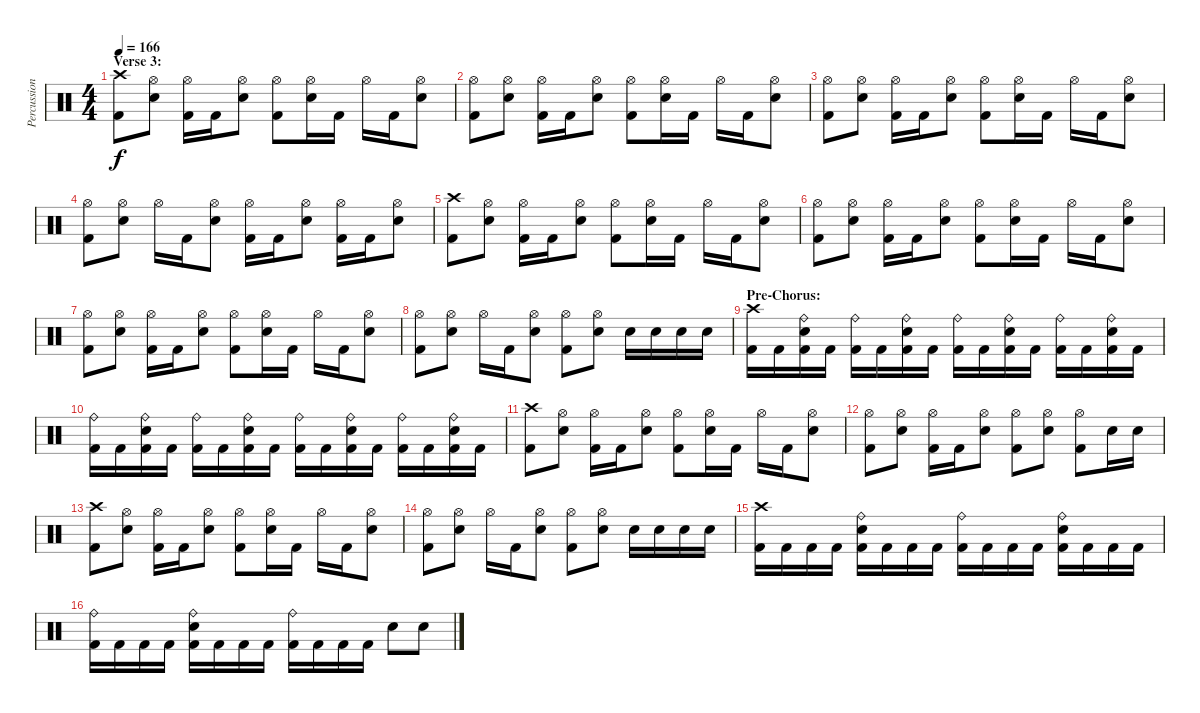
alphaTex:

\track ("Percussion" "Percussion") {instrument percussion}
\staff {score}
\articulation defaults
\ts (4 4)
\section ("" "Verse 3:")
\tempo 166
\clef neutral
\ks c
("Crash high (hit)" "Kick (hit) 2").8{dy f} ("Hi-Hat (open)" "Electric Snare (hit)").8 ("Hi-Hat (open)" "Kick (hit) 2").16 "Kick (hit) 2".16 ("Hi-Hat (open)" "Electric Snare (hit)").8 ("Hi-Hat (open)" "Kick (hit) 2").8 ("Hi-Hat (open)" "Electric Snare (hit)").16 "Kick (hit) 2".16 "Hi-Hat (open)".16 "Kick (hit) 2".16 ("Hi-Hat (open)" "Electric Snare (hit)").8 |
("Hi-Hat (open)" "Kick (hit) 2").8 ("Hi-Hat (open)" "Electric Snare (hit)").8 ("Hi-Hat (open)" "Kick (hit) 2").16 "Kick (hit) 2".16 ("Hi-Hat (open)" "Electric Snare (hit)").8 ("Hi-Hat (open)" "Kick (hit) 2").8 ("Hi-Hat (open)" "Electric Snare (hit)").16 "Kick (hit) 2".16 "Hi-Hat (open)".16 "Kick (hit) 2".16 ("Hi-Hat (open)" "Electric Snare (hit)").8 |
("Hi-Hat (open)" "Kick (hit) 2").8 ("Hi-Hat (open)" "Electric Snare (hit)").8 ("Hi-Hat (open)" "Kick (hit) 2").16 "Kick (hit) 2".16 ("Hi-Hat (open)" "Electric Snare (hit)").8 ("Hi-Hat (open)" "Kick (hit) 2").8 ("Hi-Hat (open)" "Electric Snare (hit)").16 "Kick (hit) 2".16 "Hi-Hat (open)".16 "Kick (hit) 2".16 ("Hi-Hat (open)" "Electric Snare (hit)").8 |
("Hi-Hat (open)" "Kick (hit) 2").8 ("Hi-Hat (open)" "Electric Snare (hit)").8 "Hi-Hat (open)".16 "Kick (hit) 2".16 ("Hi-Hat (open)" "Electric Snare (hit)").8 ("Hi-Hat (open)" "Kick (hit) 2").16 "Kick (hit) 2".16 ("Hi-Hat (open)" "Electric Snare (hit)").8 ("Hi-Hat (open)" "Kick (hit) 2").16 "Kick (hit) 2".16 ("Hi-Hat (open)" "Electric Snare (hit)").8 |
("Crash high (hit)" "Kick (hit) 2").8 ("Hi-Hat (open)" "Electric Snare (hit)").8 ("Hi-Hat (open)" "Kick (hit) 2").16 "Kick (hit) 2".16 ("Hi-Hat (open)" "Electric Snare (hit)").8 ("Hi-Hat (open)" "Kick (hit) 2").8 ("Hi-Hat (open)" "Electric Snare (hit)").16 "Kick (hit) 2".16 "Hi-Hat (open)".16 "Kick (hit) 2".16 ("Hi-Hat (open)" "Electric Snare (hit)").8 |
("Hi-Hat (open)" "Kick (hit) 2").8 ("Hi-Hat (open)" "Electric Snare (hit)").8 ("Hi-Hat (open)" "Kick (hit) 2").16 "Kick (hit) 2".16 ("Hi-Hat (open)" "Electric Snare (hit)").8 ("Hi-Hat (open)" "Kick (hit) 2").8 ("Hi-Hat (open)" "Electric Snare (hit)").16 "Kick (hit) 2".16 "Hi-Hat (open)".16 "Kick (hit) 2".16 ("Hi-Hat (open)" "Electric Snare (hit)").8 |
("Hi-Hat (open)" "Kick (hit) 2").8 ("Hi-Hat (open)" "Electric Snare (hit)").8 ("Hi-Hat (open)" "Kick (hit) 2").16 "Kick (hit) 2".16 ("Hi-Hat (open)" "Electric Snare (hit)").8 ("Hi-Hat (open)" "Kick (hit) 2").8 ("Hi-Hat (open)" "Electric Snare (hit)").16 "Kick (hit) 2".16 "Hi-Hat (open)".16 "Kick (hit) 2".16 ("Hi-Hat (open)" "Electric Snare (hit)").8 |
("Hi-Hat (open)" "Kick (hit) 2").8 ("Hi-Hat (open)" "Electric Snare (hit)").8 "Hi-Hat (open)".16 "Kick (hit) 2".16 ("Hi-Hat (open)" "Electric Snare (hit)").8 ("Hi-Hat (open)" "Kick (hit) 2").8 ("Hi-Hat (open)" "Electric Snare (hit)").8 "Electric Snare (hit)".16 "Electric Snare (hit)".16 "Electric Snare (hit)".16 "Electric Snare (hit)".16 |
\section ("" "Pre-Chorus:")
("Crash high (hit)" "Kick (hit) 2").16 "Kick (hit) 2".16 ("Ride (bell)" "Electric Snare (hit)" "Kick (hit) 2").16 "Kick (hit) 2".16 ("Ride (bell)" "Kick (hit) 2").16 "Kick (hit) 2".16 ("Ride (bell)" "Electric Snare (hit)" "Kick (hit) 2").16 "Kick (hit) 2".16 ("Ride (bell)" "Kick (hit) 2").16 "Kick (hit) 2".16 ("Ride (bell)" "Electric Snare (hit)" "Kick (hit) 2").16 "Kick (hit) 2".16 ("Ride (bell)" "Kick (hit) 2").16 "Kick (hit) 2".16 ("Ride (bell)" "Electric Snare (hit)" "Kick (hit) 2").16 "Kick (hit) 2".16 |
("Ride (bell)" "Kick (hit) 2").16 "Kick (hit) 2".16 ("Ride (bell)" "Electric Snare (hit)" "Kick (hit) 2").16 "Kick (hit) 2".16 ("Ride (bell)" "Kick (hit) 2").16 "Kick (hit) 2".16 ("Ride (bell)" "Electric Snare (hit)" "Kick (hit) 2").16 "Kick (hit) 2".16 ("Ride (bell)" "Kick (hit) 2").16 "Kick (hit) 2".16 ("Ride (bell)" "Electric Snare (hit)" "Kick (hit) 2").16 "Kick (hit) 2".16 ("Ride (bell)" "Kick (hit) 2").16 "Kick (hit) 2".16 ("Ride (bell)" "Electric Snare (hit)" "Kick (hit) 2").16 "Kick (hit) 2".16 |
("Crash high (hit)" "Kick (hit) 2").8 ("Hi-Hat (open)" "Electric Snare (hit)").8 ("Hi-Hat (open)" "Kick (hit) 2").16 "Kick (hit) 2".16 ("Hi-Hat (open)" "Electric Snare (hit)").8 ("Hi-Hat (open)" "Kick (hit) 2").8 ("Hi-Hat (open)" "Electric Snare (hit)").16 "Kick (hit) 2".16 "Hi-Hat (open)".16 "Kick (hit) 2".16 ("Hi-Hat (open)" "Electric Snare (hit)").8 |
("Hi-Hat (open)" "Kick (hit) 2").8 ("Hi-Hat (open)" "Electric Snare (hit)").8 ("Hi-Hat (open)" "Kick (hit) 2").16 "Kick (hit) 2".16 ("Hi-Hat (open)" "Electric Snare (hit)").8 ("Hi-Hat (open)" "Kick (hit) 2").8 ("Hi-Hat (open)" "Electric Snare (hit)").8 ("Hi-Hat (open)" "Kick (hit) 2").8 "Electric Snare (hit)".16 "Electric Snare (hit)".16 |
("Crash high (hit)" "Kick (hit) 2").8 ("Hi-Hat (open)" "Electric Snare (hit)").8 ("Hi-Hat (open)" "Kick (hit) 2").16 "Kick (hit) 2".16 ("Hi-Hat (open)" "Electric Snare (hit)").8 ("Hi-Hat (open)" "Kick (hit) 2").8 ("Hi-Hat (open)" "Electric Snare (hit)").16 "Kick (hit) 2".16 "Hi-Hat (open)".16 "Kick (hit) 2".16 ("Hi-Hat (open)" "Electric Snare (hit)").8 |
("Hi-Hat (open)" "Kick (hit) 2").8 ("Hi-Hat (open)" "Electric Snare (hit)").8 "Hi-Hat (open)".16 "Kick (hit) 2".16 ("Hi-Hat (open)" "Electric Snare (hit)").8 ("Hi-Hat (open)" "Kick (hit) 2").8 ("Hi-Hat (open)" "Electric Snare (hit)").8 "Electric Snare (hit)".16 "Electric Snare (hit)".16 "Electric Snare (hit)".16 "Electric Snare (hit)".16 |
("Crash high (hit)" "Kick (hit) 2").16 "Kick (hit) 2".16 "Kick (hit) 2".16 "Kick (hit) 2".16 ("Ride (bell)" "Electric Snare (hit)" "Kick (hit) 2").16 "Kick (hit) 2".16 "Kick (hit) 2".16 "Kick (hit) 2".16 ("Ride (bell)" "Kick (hit) 2").16 "Kick (hit) 2".16 "Kick (hit) 2".16 "Kick (hit) 2".16 ("Ride (bell)" "Electric Snare (hit)" "Kick (hit) 2").16 "Kick (hit) 2".16 "Kick (hit) 2".16 "Kick (hit) 2".16 |
("Ride (bell)" "Kick (hit) 2").16 "Kick (hit) 2".16 "Kick (hit) 2".16 "Kick (hit) 2".16 ("Ride (bell)" "Electric Snare (hit)" "Kick (hit) 2").16 "Kick (hit) 2".16 "Kick (hit) 2".16 "Kick (hit) 2".16 ("Ride (bell)" "Kick (hit) 2").16 "Kick (hit) 2".16 "Kick (hit) 2".16 "Kick (hit) 2".16 "Electric Snare (hit)".8 "Electric Snare (hit)".8
